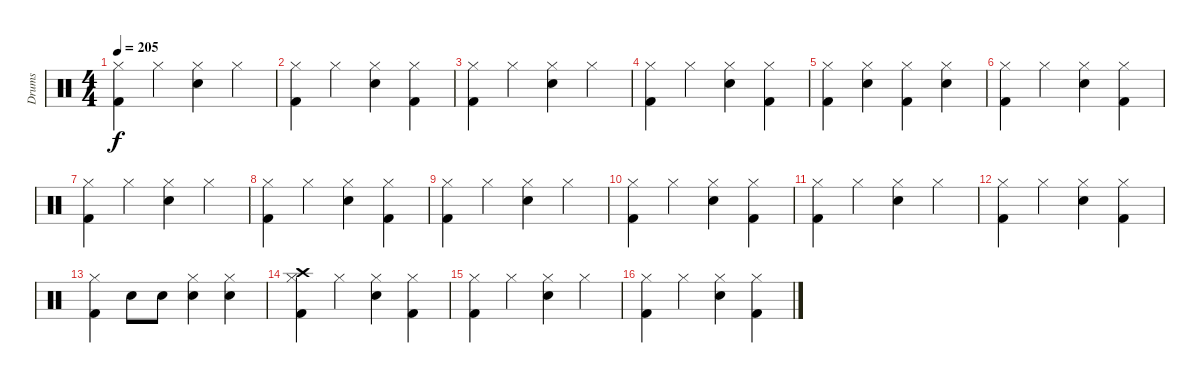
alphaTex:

\track ("Drums" "Drums") {instrument percussion}
\staff {score}
\articulation defaults
\ts (4 4)
\tempo 205
\clef neutral
\ks c
("Kick (hit) 2" "Hi-Hat (closed)").4{dy f} "Hi-Hat (closed)".4 ("Snare (hit) 2" "Hi-Hat (closed)").4 "Hi-Hat (closed)".4 |
("Kick (hit) 2" "Hi-Hat (closed)").4 "Hi-Hat (closed)".4 ("Snare (hit) 2" "Hi-Hat (closed)").4 ("Kick (hit) 2" "Hi-Hat (closed)").4 |
("Kick (hit) 2" "Hi-Hat (closed)").4 "Hi-Hat (closed)".4 ("Snare (hit) 2" "Hi-Hat (closed)").4 "Hi-Hat (closed)".4 |
("Kick (hit) 2" "Hi-Hat (closed)").4 "Hi-Hat (closed)".4 ("Snare (hit) 2" "Hi-Hat (closed)").4 ("Kick (hit) 2" "Hi-Hat (closed)").4 |
("Kick (hit) 2" "Hi-Hat (closed)").4 ("Snare (hit) 2" "Hi-Hat (closed)").4 ("Kick (hit) 2" "Hi-Hat (closed)").4 ("Snare (hit) 2" "Hi-Hat (closed)").4 |
("Kick (hit) 2" "Hi-Hat (closed)").4 "Hi-Hat (closed)".4 ("Snare (hit) 2" "Hi-Hat (closed)").4 ("Kick (hit) 2" "Hi-Hat (closed)").4 |
("Kick (hit) 2" "Hi-Hat (closed)").4 "Hi-Hat (closed)".4 ("Snare (hit) 2" "Hi-Hat (closed)").4 "Hi-Hat (closed)".4 |
("Kick (hit) 2" "Hi-Hat (closed)").4 "Hi-Hat (closed)".4 ("Snare (hit) 2" "Hi-Hat (closed)").4 ("Kick (hit) 2" "Hi-Hat (closed)").4 |
("Kick (hit) 2" "Hi-Hat (closed)").4 "Hi-Hat (closed)".4 ("Snare (hit) 2" "Hi-Hat (closed)").4 "Hi-Hat (closed)".4 |
("Kick (hit) 2" "Hi-Hat (closed)").4 "Hi-Hat (closed)".4 ("Snare (hit) 2" "Hi-Hat (closed)").4 ("Kick (hit) 2" "Hi-Hat (closed)").4 |
("Kick (hit) 2" "Hi-Hat (closed)").4 "Hi-Hat (closed)".4 ("Snare (hit) 2" "Hi-Hat (closed)").4 "Hi-Hat (closed)".4 |
("Kick (hit) 2" "Hi-Hat (closed)").4 "Hi-Hat (closed)".4 ("Snare (hit) 2" "Hi-Hat (closed)").4 ("Kick (hit) 2" "Hi-Hat (closed)").4 |
("Kick (hit) 2" "Hi-Hat (closed)").4 "Snare (hit) 2".8 "Snare (hit) 2".8 ("Snare (hit) 2" "Hi-Hat (closed)").4 ("Snare (hit) 2" "Hi-Hat (closed)").4 |
("Crash high (hit)" "Kick (hit) 2" "Hi-Hat (closed)").4 "Hi-Hat (closed)".4 ("Snare (hit) 2" "Hi-Hat (closed)").4 ("Kick (hit) 2" "Hi-Hat (closed)").4 |
("Kick (hit) 2" "Hi-Hat (closed)").4 "Hi-Hat (closed)".4 ("Snare (hit) 2" "Hi-Hat (closed)").4 "Hi-Hat (closed)".4 |
("Kick (hit) 2" "Hi-Hat (closed)").4 "Hi-Hat (closed)".4 ("Snare (hit) 2" "Hi-Hat (closed)").4 ("Kick (hit) 2" "Hi-Hat (closed)").4
